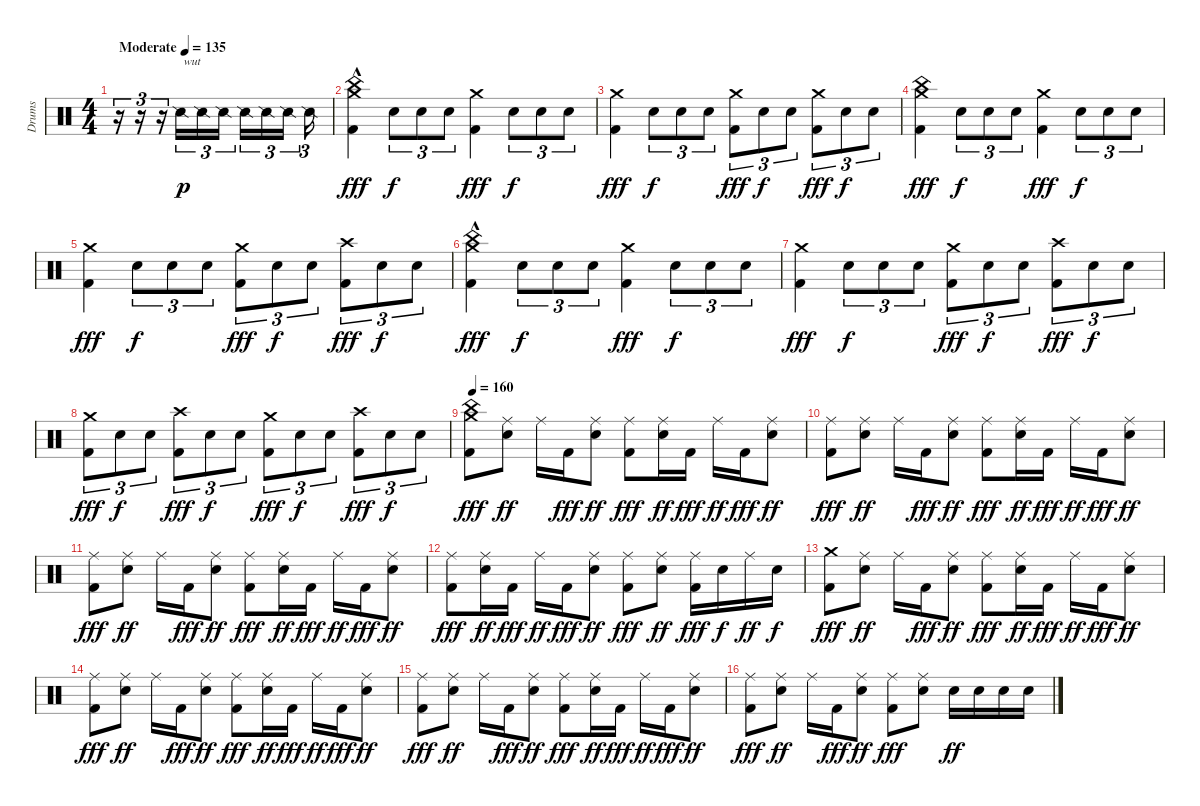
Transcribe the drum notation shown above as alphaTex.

\track ("Drums" "Drums") {instrument percussion}
\staff {score}
\articulation defaults
\ts (4 4)
\tempo (135 "Moderate")
\clef neutral
\ks c
r.16{tu (3 2) dy p} r.16{tu (3 2)} r.16{tu (3 2)} "Snare (side stick) 2".16{tu (3 2) txt "wut"} "Snare (side stick) 2".16{tu (3 2)} "Snare (side stick) 2".16{tu (3 2)} "Snare (side stick) 2".16{tu (3 2)} "Snare (side stick) 2".16{tu (3 2)} "Snare (side stick) 2".16{tu (3 2) beam splitsecondary} "Snare (side stick) 2".16{tu (3 2)} |
("China (hit)"{hac} "Crash medium (hit)" "Kick (hit) 2").4{dy fff} "Electric Snare (hit)".8{tu (3 2) dy f} "Electric Snare (hit)".8{tu (3 2)} "Electric Snare (hit)".8{tu (3 2)} ("Crash medium (hit)" "Kick (hit) 2").4{dy fff} "Electric Snare (hit)".8{tu (3 2) dy f} "Electric Snare (hit)".8{tu (3 2)} "Electric Snare (hit)".8{tu (3 2)} |
("Crash medium (hit)" "Kick (hit) 2").4{dy fff} "Electric Snare (hit)".8{tu (3 2) dy f} "Electric Snare (hit)".8{tu (3 2)} "Electric Snare (hit)".8{tu (3 2)} ("Crash medium (hit)" "Kick (hit) 2").8{tu (3 2) dy fff} "Electric Snare (hit)".8{tu (3 2) dy f} "Electric Snare (hit)".8{tu (3 2)} ("Crash medium (hit)" "Kick (hit) 2").8{tu (3 2) dy fff} "Electric Snare (hit)".8{tu (3 2) dy f} "Electric Snare (hit)".8{tu (3 2)} |
("China (hit)" "Crash medium (hit)" "Kick (hit) 2").4{dy fff} "Electric Snare (hit)".8{tu (3 2) dy f} "Electric Snare (hit)".8{tu (3 2)} "Electric Snare (hit)".8{tu (3 2)} ("Crash medium (hit)" "Kick (hit) 2").4{dy fff} "Electric Snare (hit)".8{tu (3 2) dy f} "Electric Snare (hit)".8{tu (3 2)} "Electric Snare (hit)".8{tu (3 2)} |
("Crash medium (hit)" "Kick (hit) 2").4{dy fff} "Electric Snare (hit)".8{tu (3 2) dy f} "Electric Snare (hit)".8{tu (3 2)} "Electric Snare (hit)".8{tu (3 2)} ("Crash medium (hit)" "Kick (hit) 2").8{tu (3 2) dy fff} "Electric Snare (hit)".8{tu (3 2) dy f} "Electric Snare (hit)".8{tu (3 2)} ("Crash high (hit)" "Kick (hit) 2").8{tu (3 2) dy fff} "Electric Snare (hit)".8{tu (3 2) dy f} "Electric Snare (hit)".8{tu (3 2)} |
("China (hit)"{hac} "Crash medium (hit)" "Kick (hit) 2").4{dy fff} "Electric Snare (hit)".8{tu (3 2) dy f} "Electric Snare (hit)".8{tu (3 2)} "Electric Snare (hit)".8{tu (3 2)} ("Crash medium (hit)" "Kick (hit) 2").4{dy fff} "Electric Snare (hit)".8{tu (3 2) dy f} "Electric Snare (hit)".8{tu (3 2)} "Electric Snare (hit)".8{tu (3 2)} |
("Crash medium (hit)" "Kick (hit) 2").4{dy fff} "Electric Snare (hit)".8{tu (3 2) dy f} "Electric Snare (hit)".8{tu (3 2)} "Electric Snare (hit)".8{tu (3 2)} ("Crash medium (hit)" "Kick (hit) 2").8{tu (3 2) dy fff} "Electric Snare (hit)".8{tu (3 2) dy f} "Electric Snare (hit)".8{tu (3 2)} ("Crash high (hit)" "Kick (hit) 2").8{tu (3 2) dy fff} "Electric Snare (hit)".8{tu (3 2) dy f} "Electric Snare (hit)".8{tu (3 2)} |
("Crash medium (hit)" "Kick (hit) 2").8{tu (3 2) dy fff} "Electric Snare (hit)".8{tu (3 2) dy f} "Electric Snare (hit)".8{tu (3 2)} ("Crash high (hit)" "Kick (hit) 2").8{tu (3 2) dy fff} "Electric Snare (hit)".8{tu (3 2) dy f} "Electric Snare (hit)".8{tu (3 2)} ("Crash medium (hit)" "Kick (hit) 2").8{tu (3 2) dy fff} "Electric Snare (hit)".8{tu (3 2) dy f} "Electric Snare (hit)".8{tu (3 2)} ("Crash high (hit)" "Kick (hit) 2").8{tu (3 2) dy fff} "Electric Snare (hit)".8{tu (3 2) dy f} "Electric Snare (hit)".8{tu (3 2)} |
\tempo 160
("China (hit)" "Crash medium (hit)" "Kick (hit) 2").8{dy fff} ("Ride (middle)" "Electric Snare (hit)").8{dy ff} "Ride (middle)".16 "Kick (hit) 2".16{dy fff} ("Ride (middle)" "Electric Snare (hit)").8{dy ff} ("Ride (middle)" "Kick (hit) 2").8{dy fff} ("Ride (middle)" "Electric Snare (hit)").16{dy ff} "Kick (hit) 2".16{dy fff} "Ride (middle)".16{dy ff} "Kick (hit) 2".16{dy fff} ("Ride (middle)" "Electric Snare (hit)").8{dy ff} |
("Ride (middle)" "Kick (hit) 2").8{dy fff} ("Ride (middle)" "Electric Snare (hit)").8{dy ff} "Ride (middle)".16 "Kick (hit) 2".16{dy fff} ("Ride (middle)" "Electric Snare (hit)").8{dy ff} ("Ride (middle)" "Kick (hit) 2").8{dy fff} ("Ride (middle)" "Electric Snare (hit)").16{dy ff} "Kick (hit) 2".16{dy fff} "Ride (middle)".16{dy ff} "Kick (hit) 2".16{dy fff} ("Ride (middle)" "Electric Snare (hit)").8{dy ff} |
("Ride (middle)" "Kick (hit) 2").8{dy fff} ("Ride (middle)" "Electric Snare (hit)").8{dy ff} "Ride (middle)".16 "Kick (hit) 2".16{dy fff} ("Ride (middle)" "Electric Snare (hit)").8{dy ff} ("Ride (middle)" "Kick (hit) 2").8{dy fff} ("Ride (middle)" "Electric Snare (hit)").16{dy ff} "Kick (hit) 2".16{dy fff} "Ride (middle)".16{dy ff} "Kick (hit) 2".16{dy fff} ("Ride (middle)" "Electric Snare (hit)").8{dy ff} |
("Ride (middle)" "Kick (hit) 2").8{dy fff} ("Ride (middle)" "Electric Snare (hit)").16{dy ff} "Kick (hit) 2".16{dy fff} "Ride (middle)".16{dy ff} "Kick (hit) 2".16{dy fff} ("Ride (middle)" "Electric Snare (hit)").8{dy ff} ("Ride (middle)" "Kick (hit) 2").8{dy fff} ("Ride (middle)" "Electric Snare (hit)").8{dy ff} ("Ride (middle)" "Kick (hit) 2").16{dy fff} "Electric Snare (hit)".16{dy f} "Ride (middle)".16{dy ff} "Electric Snare (hit)".16{dy f} |
("Crash medium (hit)" "Kick (hit) 2").8{dy fff} ("Ride (middle)" "Electric Snare (hit)").8{dy ff} "Ride (middle)".16 "Kick (hit) 2".16{dy fff} ("Ride (middle)" "Electric Snare (hit)").8{dy ff} ("Ride (middle)" "Kick (hit) 2").8{dy fff} ("Ride (middle)" "Electric Snare (hit)").16{dy ff} "Kick (hit) 2".16{dy fff} "Ride (middle)".16{dy ff} "Kick (hit) 2".16{dy fff} ("Ride (middle)" "Electric Snare (hit)").8{dy ff} |
("Ride (middle)" "Kick (hit) 2").8{dy fff} ("Ride (middle)" "Electric Snare (hit)").8{dy ff} "Ride (middle)".16 "Kick (hit) 2".16{dy fff} ("Ride (middle)" "Electric Snare (hit)").8{dy ff} ("Ride (middle)" "Kick (hit) 2").8{dy fff} ("Ride (middle)" "Electric Snare (hit)").16{dy ff} "Kick (hit) 2".16{dy fff} "Ride (middle)".16{dy ff} "Kick (hit) 2".16{dy fff} ("Ride (middle)" "Electric Snare (hit)").8{dy ff} |
("Ride (middle)" "Kick (hit) 2").8{dy fff} ("Ride (middle)" "Electric Snare (hit)").8{dy ff} "Ride (middle)".16 "Kick (hit) 2".16{dy fff} ("Ride (middle)" "Electric Snare (hit)").8{dy ff} ("Ride (middle)" "Kick (hit) 2").8{dy fff} ("Ride (middle)" "Electric Snare (hit)").16{dy ff} "Kick (hit) 2".16{dy fff} "Ride (middle)".16{dy ff} "Kick (hit) 2".16{dy fff} ("Ride (middle)" "Electric Snare (hit)").8{dy ff} |
("Ride (middle)" "Kick (hit) 2").8{dy fff} ("Ride (middle)" "Electric Snare (hit)").8{dy ff} "Ride (middle)".16 "Kick (hit) 2".16{dy fff} ("Ride (middle)" "Electric Snare (hit)").8{dy ff} ("Ride (middle)" "Kick (hit) 2").8{dy fff} ("Ride (middle)" "Electric Snare (hit)").8 "Electric Snare (hit)".16{dy ff} "Electric Snare (hit)".16 "Electric Snare (hit)".16 "Electric Snare (hit)".16
